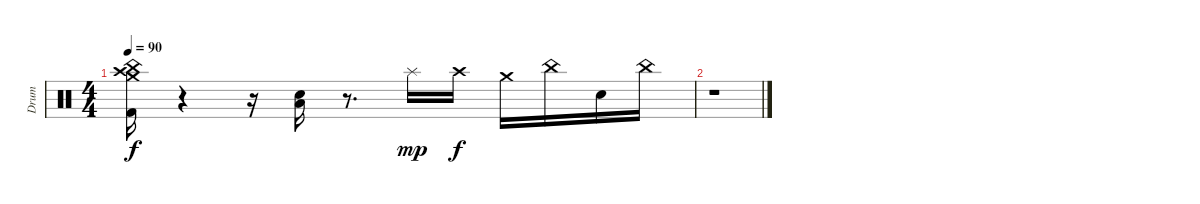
\track ("Drum" "Drum") {instrument percussion}
\staff {score}
\articulation defaults
\ts (4 4)
\tempo 90
\clef neutral
\ks c
("Crash medium (hit)" "China (hit)" "Crash high (hit)" "Kick (hit) 2").16{dy f} r.4 r.16 ("Low Floor Tom (hit)" "Electric Snare (hit)").16 r.8{d} "Splash (hit)".16{dy mp} "Crash high (hit)".16{dy f} "Crash medium (hit)".16 "China (hit)".16 "Electric Snare (hit)".16 "China (hit)".16 |
r.1
